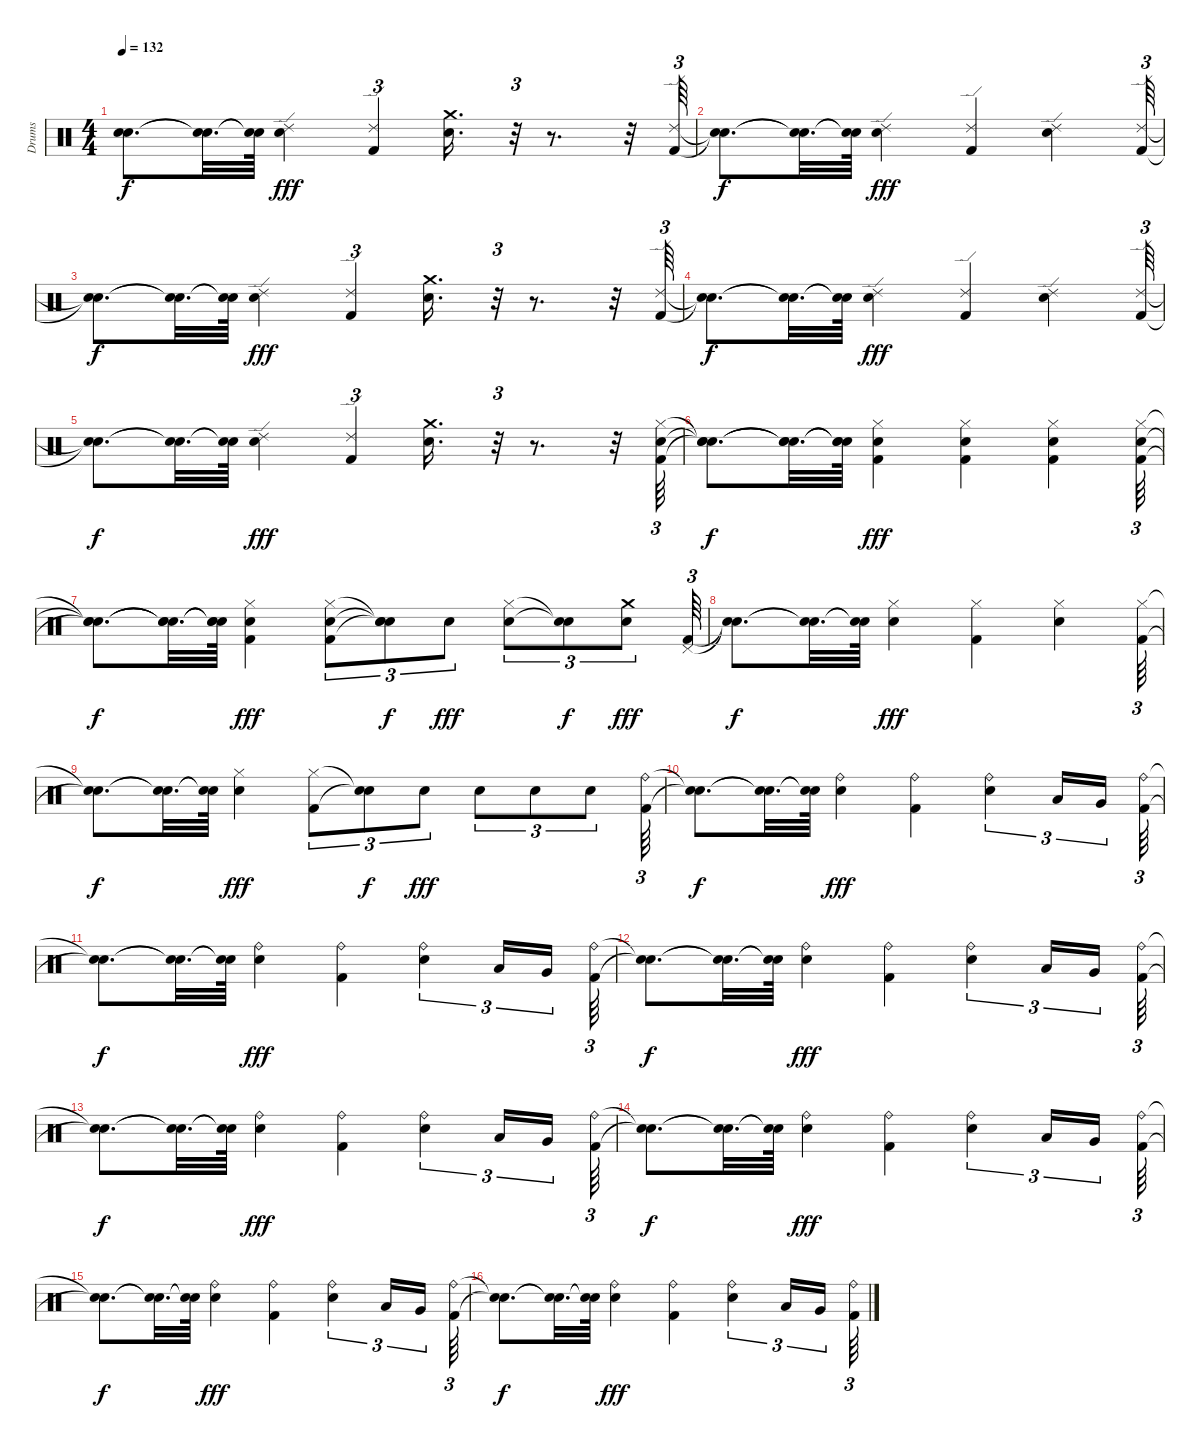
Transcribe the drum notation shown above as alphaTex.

\track ("Drums" "Drums") {instrument percussion}
\staff {score}
\articulation defaults
\ts (4 4)
\tempo 132
\clef neutral
\ks c
("Snare (hit)"{t} "Snare (hit)"{t}).8{d dy f} ("Snare (hit)"{t} "Snare (hit)"{t}).32{d} ("Snare (hit)"{t} "Snare (hit)"{t}).64 ("Ride (edge) 2" "Electric Snare (hit)").4{dy fff} ("Ride (edge) 2" "Kick (hit) 2").4{tu (3 2)} ("Electric Snare (hit)" "Crash medium (hit)").16{d} r.32{tu (3 2)} r.8{d} r.32 ("Kick (hit) 2" "Ride (edge) 2").64{tu (3 2)} |
("Snare (hit)"{t} "Snare (hit)"{t}).8{d dy f} ("Snare (hit)"{t} "Snare (hit)"{t}).32{d} ("Snare (hit)"{t} "Snare (hit)"{t}).64 ("Ride (edge) 2" "Electric Snare (hit)").4{dy fff} ("Ride (edge) 2" "Kick (hit) 2").4 ("Ride (edge) 2" "Electric Snare (hit)").4 ("Ride (edge) 2" "Kick (hit) 2").64{tu (3 2)} |
("Snare (hit)"{t} "Snare (hit)"{t}).8{d dy f} ("Snare (hit)"{t} "Snare (hit)"{t}).32{d} ("Snare (hit)"{t} "Snare (hit)"{t}).64 ("Electric Snare (hit)" "Ride (edge) 2").4{dy fff} ("Ride (edge) 2" "Kick (hit) 2").4{tu (3 2)} ("Electric Snare (hit)" "Crash medium (hit)").16{d} r.32{tu (3 2)} r.8{d} r.32 ("Kick (hit) 2" "Ride (edge) 2").64{tu (3 2)} |
("Snare (hit)"{t} "Snare (hit)"{t}).8{d dy f} ("Snare (hit)"{t} "Snare (hit)"{t}).32{d} ("Snare (hit)"{t} "Snare (hit)"{t}).64 ("Ride (edge) 2" "Electric Snare (hit)").4{dy fff} ("Kick (hit) 2" "Ride (edge) 2").4 ("Electric Snare (hit)" "Ride (edge) 2").4 ("Ride (edge) 2" "Kick (hit) 2").64{tu (3 2)} |
("Snare (hit)"{t} "Snare (hit)"{t}).8{d dy f} ("Snare (hit)"{t} "Snare (hit)"{t}).32{d} ("Snare (hit)"{t} "Snare (hit)"{t}).64 ("Electric Snare (hit)" "Ride (edge) 2").4{dy fff} ("Ride (edge) 2" "Kick (hit) 2").4{tu (3 2)} ("Crash medium (hit)" "Electric Snare (hit)").16{d} r.32{tu (3 2)} r.8{d} r.32 ("Hi-Hat (closed)" "Electric Snare (hit)" "Kick (hit) 2").64{tu (3 2)} |
("Snare (hit)"{t} "Snare (hit)"{t} "Snare (hit)"{t}).8{d dy f} ("Snare (hit)"{t} "Snare (hit)"{t} "Snare (hit)"{t}).32{d} ("Snare (hit)"{t} "Snare (hit)"{t} "Snare (hit)"{t}).64 ("Hi-Hat (closed)" "Kick (hit) 2" "Electric Snare (hit)").4{dy fff} ("Electric Snare (hit)" "Kick (hit) 2" "Hi-Hat (closed)").4 ("Hi-Hat (closed)" "Electric Snare (hit)" "Kick (hit) 2").4 ("Electric Snare (hit)" "Kick (hit) 2" "Hi-Hat (closed)").64{tu (3 2)} |
("Snare (hit)"{t} "Snare (hit)"{t} "Snare (hit)"{t}).8{d dy f} ("Snare (hit)"{t} "Snare (hit)"{t} "Snare (hit)"{t}).32{d} ("Snare (hit)"{t} "Snare (hit)"{t} "Snare (hit)"{t}).64 ("Kick (hit) 2" "Hi-Hat (closed)" "Electric Snare (hit)").4{dy fff} ("Electric Snare (hit)" "Kick (hit) 2" "Hi-Hat (closed)").8{tu (3 2)} ("Snare (hit)"{t} "Snare (hit)"{t} "Snare (hit)"{t}).8{tu (3 2) dy f} "Electric Snare (hit)".8{tu (3 2) dy fff} ("Electric Snare (hit)" "Hi-Hat (closed)").8{tu (3 2)} ("Snare (hit)"{t} "Snare (hit)"{t}).8{tu (3 2) dy f} ("Electric Snare (hit)" "Crash medium (hit)").8{tu (3 2) dy fff} ("Pedal Hi-Hat (hit)" "Kick (hit) 2").64{tu (3 2)} |
("Snare (hit)"{t} "Snare (hit)"{t}).8{d dy f} ("Snare (hit)"{t} "Snare (hit)"{t}).32{d} ("Snare (hit)"{t} "Snare (hit)"{t}).64 ("Hi-Hat (closed)" "Electric Snare (hit)").4{dy fff} ("Hi-Hat (closed)" "Kick (hit) 2").4 ("Hi-Hat (closed)" "Electric Snare (hit)").4 ("Hi-Hat (closed)" "Kick (hit) 2").64{tu (3 2)} |
("Snare (hit)"{t} "Snare (hit)"{t}).8{d dy f} ("Snare (hit)"{t} "Snare (hit)"{t}).32{d} ("Snare (hit)"{t} "Snare (hit)"{t}).64 ("Hi-Hat (closed)" "Electric Snare (hit)").4{dy fff} ("Kick (hit) 2" "Hi-Hat (closed)").8{tu (3 2)} ("Snare (hit)"{t} "Snare (hit)"{t}).8{tu (3 2) dy f} "Electric Snare (hit)".8{tu (3 2) dy fff} "Electric Snare (hit)".8{tu (3 2)} "Electric Snare (hit)".8{tu (3 2)} "Electric Snare (hit)".8{tu (3 2)} ("Ride (bell)" "Kick (hit) 2").64{tu (3 2)} |
("Snare (hit)"{t} "Snare (hit)"{t}).8{d dy f} ("Snare (hit)"{t} "Snare (hit)"{t}).32{d} ("Snare (hit)"{t} "Snare (hit)"{t}).64 ("Electric Snare (hit)" "Ride (bell)").4{dy fff} ("Ride (bell)" "Kick (hit) 2").4 ("Ride (bell)" "Electric Snare (hit)").4{tu (3 2)} "Low Tom (hit)".16{tu (3 2)} "Very Low Tom (hit)".16{tu (3 2)} ("Ride (bell)" "Kick (hit) 2").64{tu (3 2)} |
("Snare (hit)"{t} "Snare (hit)"{t}).8{d dy f} ("Snare (hit)"{t} "Snare (hit)"{t}).32{d} ("Snare (hit)"{t} "Snare (hit)"{t}).64 ("Ride (bell)" "Electric Snare (hit)").4{dy fff} ("Ride (bell)" "Kick (hit) 2").4 ("Ride (bell)" "Electric Snare (hit)").4{tu (3 2)} "Low Tom (hit)".16{tu (3 2)} "Very Low Tom (hit)".16{tu (3 2)} ("Kick (hit) 2" "Ride (bell)").64{tu (3 2)} |
("Snare (hit)"{t} "Snare (hit)"{t}).8{d dy f} ("Snare (hit)"{t} "Snare (hit)"{t}).32{d} ("Snare (hit)"{t} "Snare (hit)"{t}).64 ("Ride (bell)" "Electric Snare (hit)").4{dy fff} ("Kick (hit) 2" "Ride (bell)").4 ("Electric Snare (hit)" "Ride (bell)").4{tu (3 2)} "Low Tom (hit)".16{tu (3 2)} "Very Low Tom (hit)".16{tu (3 2)} ("Ride (bell)" "Kick (hit) 2").64{tu (3 2)} |
("Snare (hit)"{t} "Snare (hit)"{t}).8{d dy f} ("Snare (hit)"{t} "Snare (hit)"{t}).32{d} ("Snare (hit)"{t} "Snare (hit)"{t}).64 ("Electric Snare (hit)" "Ride (bell)").4{dy fff} ("Kick (hit) 2" "Ride (bell)").4 ("Ride (bell)" "Electric Snare (hit)").4{tu (3 2)} "Low Tom (hit)".16{tu (3 2)} "Very Low Tom (hit)".16{tu (3 2)} ("Ride (bell)" "Kick (hit) 2").64{tu (3 2)} |
("Snare (hit)"{t} "Snare (hit)"{t}).8{d dy f} ("Snare (hit)"{t} "Snare (hit)"{t}).32{d} ("Snare (hit)"{t} "Snare (hit)"{t}).64 ("Electric Snare (hit)" "Ride (bell)").4{dy fff} ("Ride (bell)" "Kick (hit) 2").4 ("Ride (bell)" "Electric Snare (hit)").4{tu (3 2)} "Low Tom (hit)".16{tu (3 2)} "Very Low Tom (hit)".16{tu (3 2)} ("Ride (bell)" "Kick (hit) 2").64{tu (3 2)} |
("Snare (hit)"{t} "Snare (hit)"{t}).8{d dy f} ("Snare (hit)"{t} "Snare (hit)"{t}).32{d} ("Snare (hit)"{t} "Snare (hit)"{t}).64 ("Electric Snare (hit)" "Ride (bell)").4{dy fff} ("Kick (hit) 2" "Ride (bell)").4 ("Electric Snare (hit)" "Ride (bell)").4{tu (3 2)} "Low Tom (hit)".16{tu (3 2)} "Very Low Tom (hit)".16{tu (3 2)} ("Ride (bell)" "Kick (hit) 2").64{tu (3 2)} |
("Snare (hit)"{t} "Snare (hit)"{t}).8{d dy f} ("Snare (hit)"{t} "Snare (hit)"{t}).32{d} ("Snare (hit)"{t} "Snare (hit)"{t}).64 ("Ride (bell)" "Electric Snare (hit)").4{dy fff} ("Ride (bell)" "Kick (hit) 2").4 ("Ride (bell)" "Electric Snare (hit)").4{tu (3 2)} "Low Tom (hit)".16{tu (3 2)} "Very Low Tom (hit)".16{tu (3 2)} ("Kick (hit) 2" "Ride (bell)").64{tu (3 2)}
